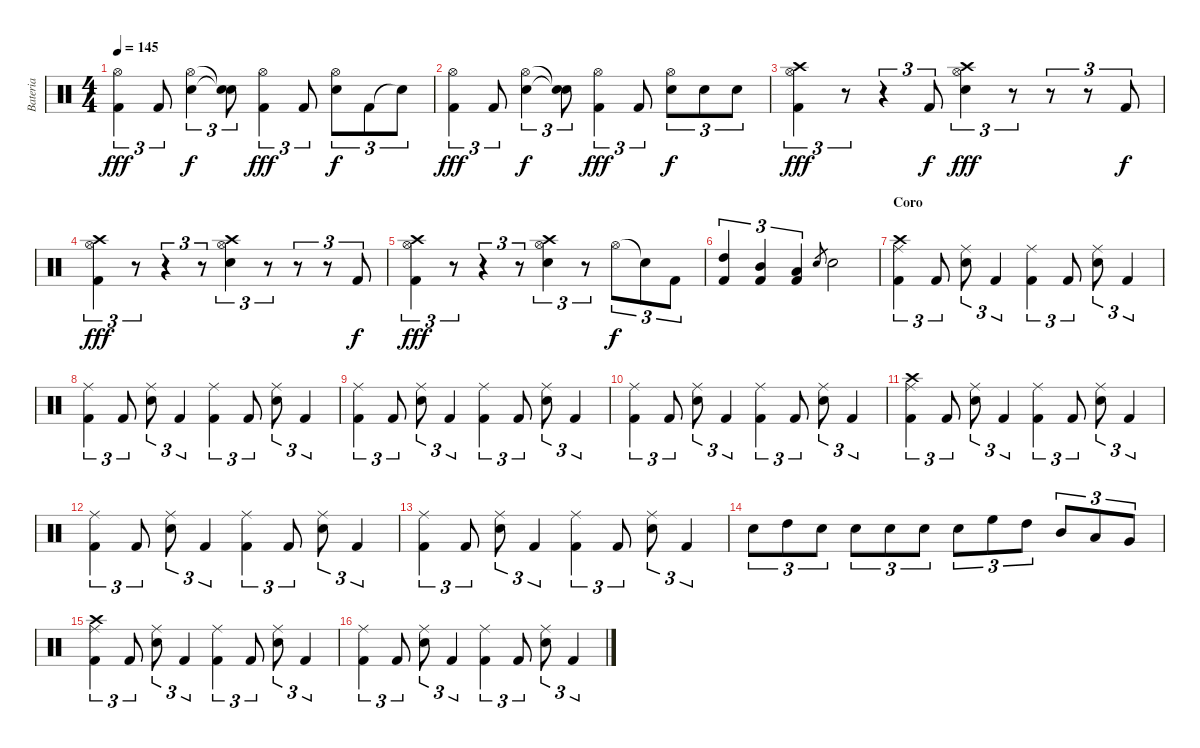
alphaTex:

\track ("Bateria" "Bateria") {instrument percussion}
\staff {score}
\articulation defaults
\ts (4 4)
\tempo 145
\clef neutral
\ks c
("Hi-Hat (open)" "Kick (hit) 2").4{tu (3 2) dy fff} "Kick (hit) 2".8{tu (3 2)} ("Hi-Hat (open)" "Snare (hit) 2").4{tu (3 2) dy f} ("Snare (hit)"{t} "Snare (hit)"{t}).8{tu (3 2)} ("Hi-Hat (open)" "Kick (hit) 2").4{tu (3 2) dy fff} "Kick (hit) 2".8{tu (3 2)} ("Hi-Hat (open)" "Snare (hit) 2").8{tu (3 2) dy f} "Kick (hit) 2".8{tu (3 2)} "Snare (hit)"{t}.8{tu (3 2)} |
("Hi-Hat (open)" "Kick (hit) 2").4{tu (3 2) dy fff} "Kick (hit) 2".8{tu (3 2)} ("Hi-Hat (open)" "Snare (hit) 2").4{tu (3 2) dy f} ("Snare (hit)"{t} "Snare (hit)"{t}).8{tu (3 2)} ("Hi-Hat (open)" "Kick (hit) 2").4{tu (3 2) dy fff} "Kick (hit) 2".8{tu (3 2)} ("Hi-Hat (open)" "Snare (hit) 2").8{tu (3 2) dy f} "Snare (hit) 2".8{tu (3 2)} "Snare (hit) 2".8{tu (3 2)} |
("Hi-Hat (open)" "Kick (hit) 2" "Crash high (hit)").4{tu (3 2) dy fff} r.8{tu (3 2)} r.4{tu (3 2)} "Kick (hit) 2".8{tu (3 2) dy f} ("Hi-Hat (open)" "Snare (hit) 2" "Crash high (hit)").4{tu (3 2) dy fff} r.8{tu (3 2)} r.8{tu (3 2)} r.8{tu (3 2)} "Kick (hit) 2".8{tu (3 2) dy f} |
("Hi-Hat (open)" "Kick (hit) 2" "Crash high (hit)").4{tu (3 2) dy fff} r.8{tu (3 2)} r.4{tu (3 2)} r.8{tu (3 2)} ("Hi-Hat (open)" "Snare (hit) 2" "Crash high (hit)").4{tu (3 2)} r.8{tu (3 2)} r.8{tu (3 2)} r.8{tu (3 2)} "Kick (hit) 2".8{tu (3 2) dy f} |
("Hi-Hat (open)" "Kick (hit) 2" "Crash high (hit)").4{tu (3 2) dy fff} r.8{tu (3 2)} r.4{tu (3 2)} r.8{tu (3 2)} ("Hi-Hat (open)" "Snare (hit) 2" "Crash high (hit)").4{tu (3 2)} r.8{tu (3 2)} "Hi-Hat (open)".8{tu (3 2) dy f} "Snare (hit)"{t}.8{tu (3 2)} "Kick (hit) 2".8{tu (3 2)} |
("High Tom (hit)" "Kick (hit) 2").4{tu (3 2)} ("Mid Tom (hit)" "Kick (hit) 2").4{tu (3 2)} ("Low Tom (hit)" "Kick (hit) 2").4{tu (3 2)} "Snare (hit) 2".8{gr} "Snare (hit) 2".2 |
\section ("" "Coro")
("Ride (middle)" "Crash high (hit)" "Kick (hit) 2").4{tu (3 2)} "Kick (hit) 2".8{tu (3 2)} ("Ride (middle)" "Snare (hit) 2").8{tu (3 2)} "Kick (hit) 2".4{tu (3 2)} ("Ride (middle)" "Kick (hit) 2").4{tu (3 2)} "Kick (hit) 2".8{tu (3 2)} ("Ride (middle)" "Snare (hit) 2").8{tu (3 2)} "Kick (hit) 2".4{tu (3 2)} |
("Ride (middle)" "Kick (hit) 2").4{tu (3 2)} "Kick (hit) 2".8{tu (3 2)} ("Ride (middle)" "Snare (hit) 2").8{tu (3 2)} "Kick (hit) 2".4{tu (3 2)} ("Ride (middle)" "Kick (hit) 2").4{tu (3 2)} "Kick (hit) 2".8{tu (3 2)} ("Ride (middle)" "Snare (hit) 2").8{tu (3 2)} "Kick (hit) 2".4{tu (3 2)} |
("Ride (middle)" "Kick (hit) 2").4{tu (3 2)} "Kick (hit) 2".8{tu (3 2)} ("Ride (middle)" "Snare (hit) 2").8{tu (3 2)} "Kick (hit) 2".4{tu (3 2)} ("Ride (middle)" "Kick (hit) 2").4{tu (3 2)} "Kick (hit) 2".8{tu (3 2)} ("Ride (middle)" "Snare (hit) 2").8{tu (3 2)} "Kick (hit) 2".4{tu (3 2)} |
("Ride (middle)" "Kick (hit) 2").4{tu (3 2)} "Kick (hit) 2".8{tu (3 2)} ("Ride (middle)" "Snare (hit) 2").8{tu (3 2)} "Kick (hit) 2".4{tu (3 2)} ("Ride (middle)" "Kick (hit) 2").4{tu (3 2)} "Kick (hit) 2".8{tu (3 2)} ("Ride (middle)" "Snare (hit) 2").8{tu (3 2)} "Kick (hit) 2".4{tu (3 2)} |
("Ride (middle)" "Crash high (hit)" "Kick (hit) 2").4{tu (3 2)} "Kick (hit) 2".8{tu (3 2)} ("Ride (middle)" "Snare (hit) 2").8{tu (3 2)} "Kick (hit) 2".4{tu (3 2)} ("Ride (middle)" "Kick (hit) 2").4{tu (3 2)} "Kick (hit) 2".8{tu (3 2)} ("Ride (middle)" "Snare (hit) 2").8{tu (3 2)} "Kick (hit) 2".4{tu (3 2)} |
("Ride (middle)" "Kick (hit) 2").4{tu (3 2)} "Kick (hit) 2".8{tu (3 2)} ("Ride (middle)" "Snare (hit) 2").8{tu (3 2)} "Kick (hit) 2".4{tu (3 2)} ("Ride (middle)" "Kick (hit) 2").4{tu (3 2)} "Kick (hit) 2".8{tu (3 2)} ("Ride (middle)" "Snare (hit) 2").8{tu (3 2)} "Kick (hit) 2".4{tu (3 2)} |
("Ride (middle)" "Kick (hit) 2").4{tu (3 2)} "Kick (hit) 2".8{tu (3 2)} ("Ride (middle)" "Snare (hit) 2").8{tu (3 2)} "Kick (hit) 2".4{tu (3 2)} ("Ride (middle)" "Kick (hit) 2").4{tu (3 2)} "Kick (hit) 2".8{tu (3 2)} ("Ride (middle)" "Snare (hit) 2").8{tu (3 2)} "Kick (hit) 2".4{tu (3 2)} |
"Snare (hit) 2".8{tu (3 2)} "High Tom (hit)".8{tu (3 2)} "Snare (hit) 2".8{tu (3 2)} "Snare (hit) 2".8{tu (3 2)} "Snare (hit) 2".8{tu (3 2)} "Snare (hit) 2".8{tu (3 2)} "Snare (hit) 2".8{tu (3 2)} "High Floor Tom (hit)".8{tu (3 2)} "High Tom (hit)".8{tu (3 2)} "Mid Tom (hit)".8{tu (3 2)} "Low Tom (hit)".8{tu (3 2)} "Very Low Tom (hit)".8{tu (3 2)} |
("Ride (middle)" "Crash high (hit)" "Kick (hit) 2").4{tu (3 2)} "Kick (hit) 2".8{tu (3 2)} ("Ride (middle)" "Snare (hit) 2").8{tu (3 2)} "Kick (hit) 2".4{tu (3 2)} ("Ride (middle)" "Kick (hit) 2").4{tu (3 2)} "Kick (hit) 2".8{tu (3 2)} ("Ride (middle)" "Snare (hit) 2").8{tu (3 2)} "Kick (hit) 2".4{tu (3 2)} |
("Ride (middle)" "Kick (hit) 2").4{tu (3 2)} "Kick (hit) 2".8{tu (3 2)} ("Ride (middle)" "Snare (hit) 2").8{tu (3 2)} "Kick (hit) 2".4{tu (3 2)} ("Ride (middle)" "Kick (hit) 2").4{tu (3 2)} "Kick (hit) 2".8{tu (3 2)} ("Ride (middle)" "Snare (hit) 2").8{tu (3 2)} "Kick (hit) 2".4{tu (3 2)}
